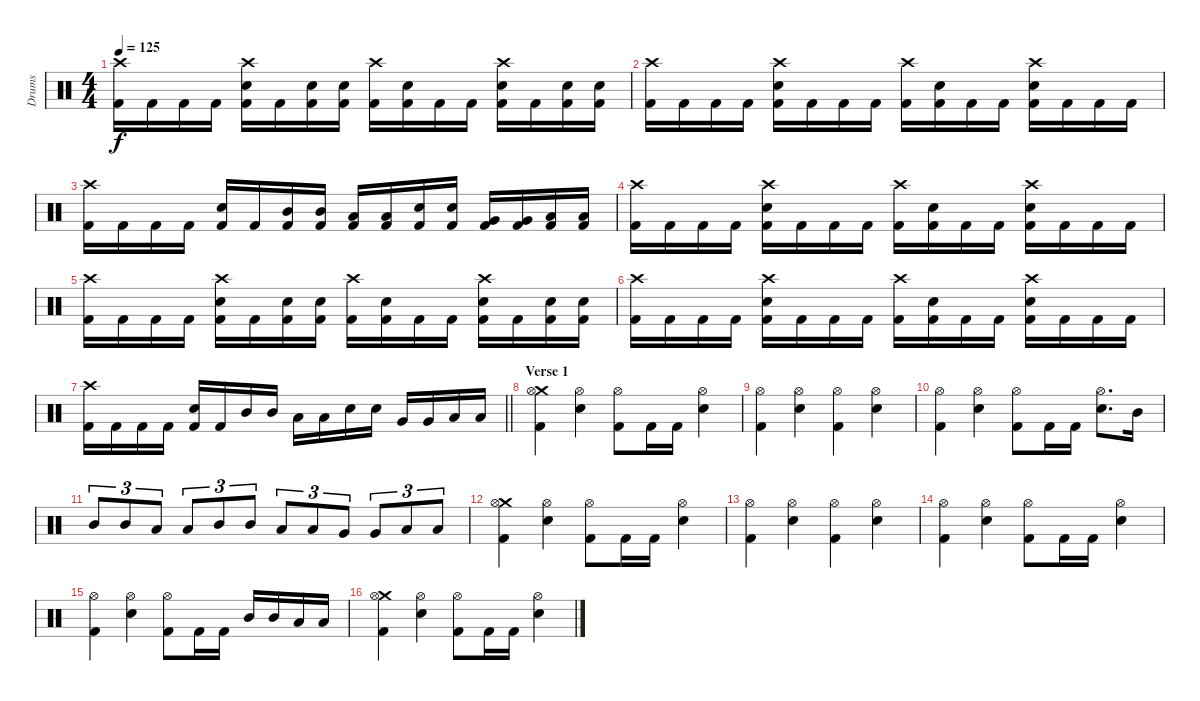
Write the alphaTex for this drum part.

\track ("Drums" "Drums") {instrument percussion}
\staff {score}
\articulation defaults
\ts (4 4)
\tempo 125
\clef neutral
\ks c
("Crash high (hit)" "Kick (hit) 2").16{dy f} "Kick (hit) 2".16 "Kick (hit) 2".16 "Kick (hit) 2".16 ("Crash high (hit)" "Snare (hit) 2" "Kick (hit) 2").16 "Kick (hit) 2".16 ("Snare (hit) 2" "Kick (hit) 2").16 ("Snare (hit) 2" "Kick (hit) 2").16 ("Crash high (hit)" "Kick (hit) 2").16 ("Snare (hit) 2" "Kick (hit) 2").16 "Kick (hit) 2".16 "Kick (hit) 2".16 ("Crash high (hit)" "Snare (hit) 2" "Kick (hit) 2").16 "Kick (hit) 2".16 ("Snare (hit) 2" "Kick (hit) 2").16 ("Snare (hit) 2" "Kick (hit) 2").16 |
("Crash high (hit)" "Kick (hit) 2").16 "Kick (hit) 2".16 "Kick (hit) 2".16 "Kick (hit) 2".16 ("Crash high (hit)" "Snare (hit) 2" "Kick (hit) 2").16 "Kick (hit) 2".16 "Kick (hit) 2".16 "Kick (hit) 2".16 ("Crash high (hit)" "Kick (hit) 2").16 ("Snare (hit) 2" "Kick (hit) 2").16 "Kick (hit) 2".16 "Kick (hit) 2".16 ("Crash high (hit)" "Snare (hit) 2" "Kick (hit) 2").16 "Kick (hit) 2".16 "Kick (hit) 2".16 "Kick (hit) 2".16 |
("Crash high (hit)" "Kick (hit) 2").16 "Kick (hit) 2".16 "Kick (hit) 2".16 "Kick (hit) 2".16 ("Snare (hit) 2" "Kick (hit) 2").16 "Kick (hit) 2".16 ("Mid Tom (hit)" "Kick (hit) 2").16 ("Mid Tom (hit)" "Kick (hit) 2").16 ("Low Tom (hit)" "Kick (hit) 2").16 ("Low Tom (hit)" "Kick (hit) 2").16 ("Snare (hit) 2" "Kick (hit) 2").16 ("Snare (hit) 2" "Kick (hit) 2").16 ("Very Low Tom (hit)" "Kick (hit) 2").16 ("Very Low Tom (hit)" "Kick (hit) 2").16 ("Low Floor Tom (hit)" "Kick (hit) 2").16 ("Low Floor Tom (hit)" "Kick (hit) 2").16 |
("Crash high (hit)" "Kick (hit) 2").16 "Kick (hit) 2".16 "Kick (hit) 2".16 "Kick (hit) 2".16 ("Crash high (hit)" "Electric Snare (hit)" "Kick (hit) 2").16 "Kick (hit) 2".16 "Kick (hit) 2".16 "Kick (hit) 2".16 ("Crash high (hit)" "Kick (hit) 2").16 ("Electric Snare (hit)" "Kick (hit) 2").16 "Kick (hit) 2".16 "Kick (hit) 2".16 ("Crash high (hit)" "Electric Snare (hit)" "Kick (hit) 2").16 "Kick (hit) 2".16 "Kick (hit) 2".16 "Kick (hit) 2".16 |
("Crash high (hit)" "Kick (hit) 2").16 "Kick (hit) 2".16 "Kick (hit) 2".16 "Kick (hit) 2".16 ("Crash high (hit)" "Electric Snare (hit)" "Kick (hit) 2").16 "Kick (hit) 2".16 ("Electric Snare (hit)" "Kick (hit) 2").16 ("Electric Snare (hit)" "Kick (hit) 2").16 ("Crash high (hit)" "Kick (hit) 2").16 ("Electric Snare (hit)" "Kick (hit) 2").16 "Kick (hit) 2".16 "Kick (hit) 2".16 ("Crash high (hit)" "Electric Snare (hit)" "Kick (hit) 2").16 "Kick (hit) 2".16 ("Electric Snare (hit)" "Kick (hit) 2").16 ("Electric Snare (hit)" "Kick (hit) 2").16 |
("Crash high (hit)" "Kick (hit) 2").16 "Kick (hit) 2".16 "Kick (hit) 2".16 "Kick (hit) 2".16 ("Crash high (hit)" "Electric Snare (hit)" "Kick (hit) 2").16 "Kick (hit) 2".16 "Kick (hit) 2".16 "Kick (hit) 2".16 ("Crash high (hit)" "Kick (hit) 2").16 ("Electric Snare (hit)" "Kick (hit) 2").16 "Kick (hit) 2".16 "Kick (hit) 2".16 ("Crash high (hit)" "Electric Snare (hit)" "Kick (hit) 2").16 "Kick (hit) 2".16 "Kick (hit) 2".16 "Kick (hit) 2".16 |
\barLineRight lightlight
("Crash high (hit)" "Kick (hit) 2").16 "Kick (hit) 2".16 "Kick (hit) 2".16 "Kick (hit) 2".16 ("Snare (hit) 2" "Kick (hit) 2").16 "Kick (hit) 2".16 "Mid Tom (hit)".16 "Mid Tom (hit)".16 "Low Tom (hit)".16 "Low Tom (hit)".16 "Snare (hit) 2".16 "Snare (hit) 2".16 "Very Low Tom (hit)".16 "Very Low Tom (hit)".16 "Low Floor Tom (hit)".16 "Low Floor Tom (hit)".16 |
\section ("" "Verse 1")
("Crash medium (hit)" "Hi-Hat (open)" "Kick (hit) 2").4 ("Hi-Hat (open)" "Snare (hit) 2").4 ("Hi-Hat (open)" "Kick (hit) 2").8 "Kick (hit) 2".16 "Kick (hit) 2".16 ("Hi-Hat (open)" "Snare (hit) 2").4 |
("Hi-Hat (open)" "Kick (hit) 2").4 ("Hi-Hat (open)" "Snare (hit) 2").4 ("Hi-Hat (open)" "Kick (hit) 2").4 ("Hi-Hat (open)" "Snare (hit) 2").4 |
("Hi-Hat (open)" "Kick (hit) 2").4 ("Hi-Hat (open)" "Snare (hit) 2").4 ("Hi-Hat (open)" "Kick (hit) 2").8 "Kick (hit) 2".16 "Kick (hit) 2".16 ("Hi-Hat (open)" "Snare (hit) 2").8{d} "Mid Tom (hit)".16 |
"Mid Tom (hit)".8{tu (3 2)} "Mid Tom (hit)".8{tu (3 2)} "Low Tom (hit)".8{tu (3 2)} "Low Tom (hit)".8{tu (3 2)} "Mid Tom (hit)".8{tu (3 2)} "Mid Tom (hit)".8{tu (3 2)} "Low Tom (hit)".8{tu (3 2)} "Low Tom (hit)".8{tu (3 2)} "Very Low Tom (hit)".8{tu (3 2)} "Very Low Tom (hit)".8{tu (3 2)} "Low Floor Tom (hit)".8{tu (3 2)} "Low Floor Tom (hit)".8{tu (3 2)} |
("Crash medium (hit)" "Hi-Hat (open)" "Kick (hit) 2").4 ("Hi-Hat (open)" "Snare (hit) 2").4 ("Hi-Hat (open)" "Kick (hit) 2").8 "Kick (hit) 2".16 "Kick (hit) 2".16 ("Hi-Hat (open)" "Snare (hit) 2").4 |
("Hi-Hat (open)" "Kick (hit) 2").4 ("Hi-Hat (open)" "Snare (hit) 2").4 ("Hi-Hat (open)" "Kick (hit) 2").4 ("Hi-Hat (open)" "Snare (hit) 2").4 |
("Hi-Hat (open)" "Kick (hit) 2").4 ("Hi-Hat (open)" "Snare (hit) 2").4 ("Hi-Hat (open)" "Kick (hit) 2").8 "Kick (hit) 2".16 "Kick (hit) 2".16 ("Hi-Hat (open)" "Snare (hit) 2").4 |
("Hi-Hat (open)" "Kick (hit) 2").4 ("Hi-Hat (open)" "Snare (hit) 2").4 ("Hi-Hat (open)" "Kick (hit) 2").8 "Kick (hit) 2".16 "Kick (hit) 2".16 "Mid Tom (hit)".16 "Mid Tom (hit)".16 "Low Tom (hit)".16 "Low Tom (hit)".16 |
("Crash medium (hit)" "Hi-Hat (open)" "Kick (hit) 2").4 ("Hi-Hat (open)" "Snare (hit) 2").4 ("Hi-Hat (open)" "Kick (hit) 2").8 "Kick (hit) 2".16 "Kick (hit) 2".16 ("Hi-Hat (open)" "Snare (hit) 2").4
